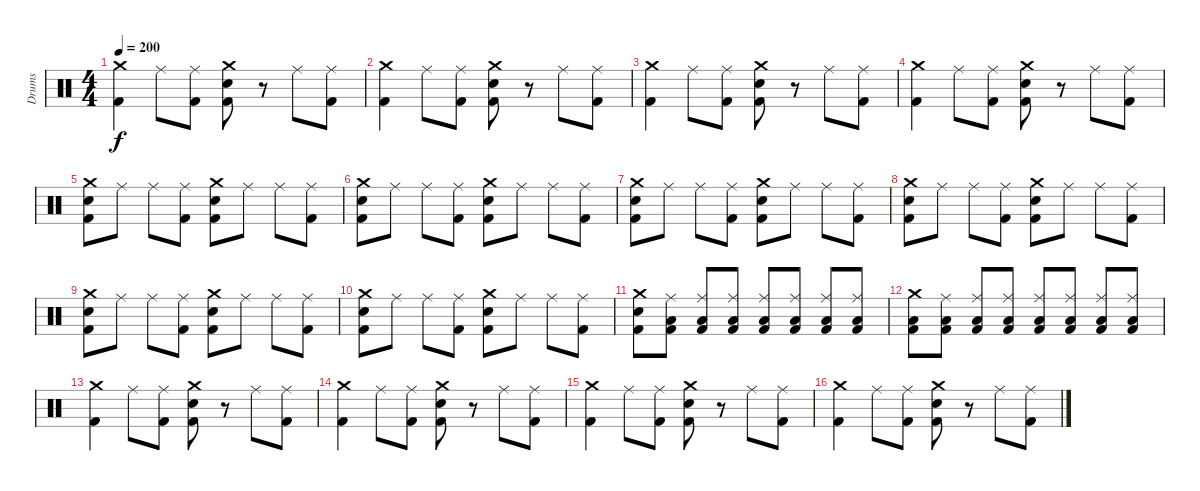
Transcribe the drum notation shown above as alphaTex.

\track ("Drums" "Drums") {instrument percussion}
\staff {score}
\articulation defaults
\ts (4 4)
\tempo 200
\clef neutral
\ks c
("Crash medium (hit)" "Kick (hit) 2").4{dy f} "Ride (middle)".8 ("Ride (middle)" "Kick (hit) 2").8 ("Crash medium (hit)" "Electric Snare (hit)" "Kick (hit) 2").8 r.8 "Ride (middle)".8 ("Ride (middle)" "Kick (hit) 2").8 |
("Crash medium (hit)" "Kick (hit) 2").4 "Ride (middle)".8 ("Ride (middle)" "Kick (hit) 2").8 ("Crash medium (hit)" "Electric Snare (hit)" "Kick (hit) 2").8 r.8 "Ride (middle)".8 ("Ride (middle)" "Kick (hit) 2").8 |
("Crash medium (hit)" "Kick (hit) 2").4 "Ride (middle)".8 ("Ride (middle)" "Kick (hit) 2").8 ("Crash medium (hit)" "Electric Snare (hit)" "Kick (hit) 2").8 r.8 "Ride (middle)".8 ("Ride (middle)" "Kick (hit) 2").8 |
("Crash medium (hit)" "Kick (hit) 2").4 "Ride (middle)".8 ("Ride (middle)" "Kick (hit) 2").8 ("Crash medium (hit)" "Electric Snare (hit)" "Kick (hit) 2").8 r.8 "Ride (middle)".8 ("Ride (middle)" "Kick (hit) 2").8 |
("Crash medium (hit)" "Electric Snare (hit)" "Kick (hit) 2").8 "Ride (middle)".8 "Ride (middle)".8 ("Ride (middle)" "Kick (hit) 2").8 ("Crash medium (hit)" "Electric Snare (hit)" "Kick (hit) 2").8 "Ride (middle)".8 "Ride (middle)".8 ("Ride (middle)" "Kick (hit) 2").8 |
("Crash medium (hit)" "Electric Snare (hit)" "Kick (hit) 2").8 "Ride (middle)".8 "Ride (middle)".8 ("Ride (middle)" "Kick (hit) 2").8 ("Crash medium (hit)" "Electric Snare (hit)" "Kick (hit) 2").8 "Ride (middle)".8 "Ride (middle)".8 ("Ride (middle)" "Kick (hit) 2").8 |
("Crash medium (hit)" "Electric Snare (hit)" "Kick (hit) 2").8 "Ride (middle)".8 "Ride (middle)".8 ("Ride (middle)" "Kick (hit) 2").8 ("Crash medium (hit)" "Electric Snare (hit)" "Kick (hit) 2").8 "Ride (middle)".8 "Ride (middle)".8 ("Ride (middle)" "Kick (hit) 2").8 |
("Crash medium (hit)" "Electric Snare (hit)" "Kick (hit) 2").8 "Ride (middle)".8 "Ride (middle)".8 ("Ride (middle)" "Kick (hit) 2").8 ("Crash medium (hit)" "Electric Snare (hit)" "Kick (hit) 2").8 "Ride (middle)".8 "Ride (middle)".8 ("Ride (middle)" "Kick (hit) 2").8 |
("Crash medium (hit)" "Electric Snare (hit)" "Kick (hit) 2").8 "Ride (middle)".8 "Ride (middle)".8 ("Ride (middle)" "Kick (hit) 2").8 ("Crash medium (hit)" "Electric Snare (hit)" "Kick (hit) 2").8 "Ride (middle)".8 "Ride (middle)".8 ("Ride (middle)" "Kick (hit) 2").8 |
("Crash medium (hit)" "Electric Snare (hit)" "Kick (hit) 2").8 "Ride (middle)".8 "Ride (middle)".8 ("Ride (middle)" "Kick (hit) 2").8 ("Crash medium (hit)" "Electric Snare (hit)" "Kick (hit) 2").8 "Ride (middle)".8 "Ride (middle)".8 ("Ride (middle)" "Kick (hit) 2").8 |
("Crash medium (hit)" "Electric Snare (hit)" "Kick (hit) 2").8 ("Ride (middle)" "Low Floor Tom (hit)" "Kick (hit) 2").8 ("Ride (middle)" "Low Floor Tom (hit)" "Kick (hit) 2").8 ("Ride (middle)" "Low Floor Tom (hit)" "Kick (hit) 2").8 ("Ride (middle)" "Low Floor Tom (hit)" "Kick (hit) 2").8 ("Ride (middle)" "Low Floor Tom (hit)" "Kick (hit) 2").8 ("Ride (middle)" "Low Floor Tom (hit)" "Kick (hit) 2").8 ("Ride (middle)" "Low Floor Tom (hit)" "Kick (hit) 2").8 |
("Crash medium (hit)" "Low Floor Tom (hit)" "Kick (hit) 2").8 ("Ride (middle)" "Low Floor Tom (hit)" "Kick (hit) 2").8 ("Ride (middle)" "Low Floor Tom (hit)" "Kick (hit) 2").8 ("Ride (middle)" "Low Floor Tom (hit)" "Kick (hit) 2").8 ("Ride (middle)" "Low Floor Tom (hit)" "Kick (hit) 2").8 ("Ride (middle)" "Low Floor Tom (hit)" "Kick (hit) 2").8 ("Ride (middle)" "Low Floor Tom (hit)" "Kick (hit) 2").8 ("Ride (middle)" "Low Floor Tom (hit)" "Kick (hit) 2").8 |
("Crash medium (hit)" "Kick (hit) 2").4 "Ride (middle)".8 ("Ride (middle)" "Kick (hit) 2").8 ("Crash medium (hit)" "Electric Snare (hit)" "Kick (hit) 2").8 r.8 "Ride (middle)".8 ("Ride (middle)" "Kick (hit) 2").8 |
("Crash medium (hit)" "Kick (hit) 2").4 "Ride (middle)".8 ("Ride (middle)" "Kick (hit) 2").8 ("Crash medium (hit)" "Electric Snare (hit)" "Kick (hit) 2").8 r.8 "Ride (middle)".8 ("Ride (middle)" "Kick (hit) 2").8 |
("Crash medium (hit)" "Kick (hit) 2").4 "Ride (middle)".8 ("Ride (middle)" "Kick (hit) 2").8 ("Crash medium (hit)" "Electric Snare (hit)" "Kick (hit) 2").8 r.8 "Ride (middle)".8 ("Ride (middle)" "Kick (hit) 2").8 |
("Crash medium (hit)" "Kick (hit) 2").4 "Ride (middle)".8 ("Ride (middle)" "Kick (hit) 2").8 ("Crash medium (hit)" "Electric Snare (hit)" "Kick (hit) 2").8 r.8 "Ride (middle)".8 ("Ride (middle)" "Kick (hit) 2").8
